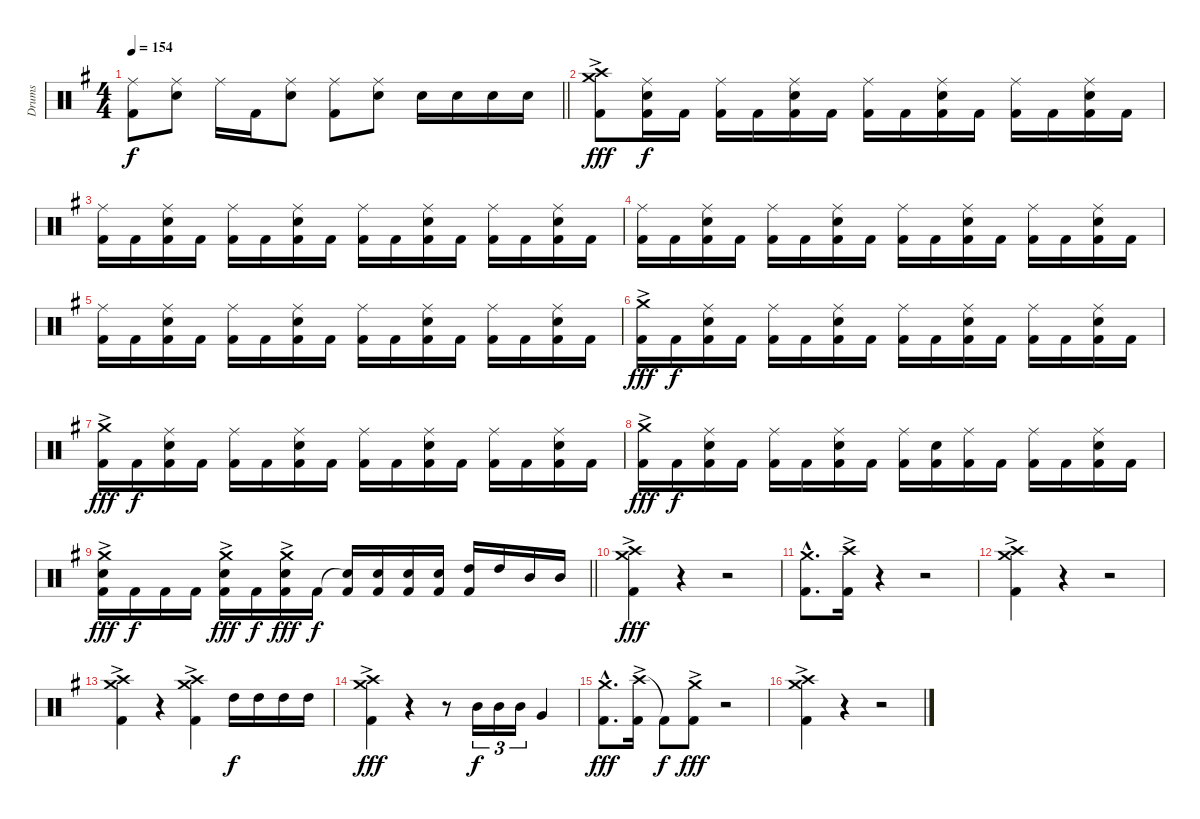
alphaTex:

\track ("Drums" "Drums") {instrument percussion}
\staff {score}
\articulation defaults
\ts (4 4)
\tempo 154
\clef neutral
\barLineRight lightlight
\ks g
("Ride (middle)" "Kick (hit) 2").8{dy f} ("Ride (middle)" "Snare (hit) 2").8 "Ride (middle)".16 "Kick (hit) 2".16 ("Ride (middle)" "Snare (hit) 2").8 ("Ride (middle)" "Kick (hit) 2").8 ("Ride (middle)" "Snare (hit) 2").8 "Snare (hit) 2".16 "Snare (hit) 2".16 "Snare (hit) 2".16 "Snare (hit) 2".16 |
("Crash medium (hit)"{ac} "Crash high (hit)"{ac} "Kick (hit) 2"{ac}).8{dy fff} ("Ride (middle)" "Snare (hit) 2" "Kick (hit) 2").16{dy f} "Kick (hit) 2".16 ("Ride (middle)" "Kick (hit) 2").16 "Kick (hit) 2".16 ("Ride (middle)" "Snare (hit) 2" "Kick (hit) 2").16 "Kick (hit) 2".16 ("Ride (middle)" "Kick (hit) 2").16 "Kick (hit) 2".16 ("Ride (middle)" "Snare (hit) 2" "Kick (hit) 2").16 "Kick (hit) 2".16 ("Ride (middle)" "Kick (hit) 2").16 "Kick (hit) 2".16 ("Ride (middle)" "Snare (hit) 2" "Kick (hit) 2").16 "Kick (hit) 2".16 |
("Ride (middle)" "Kick (hit) 2").16 "Kick (hit) 2".16 ("Ride (middle)" "Snare (hit) 2" "Kick (hit) 2").16 "Kick (hit) 2".16 ("Ride (middle)" "Kick (hit) 2").16 "Kick (hit) 2".16 ("Ride (middle)" "Snare (hit) 2" "Kick (hit) 2").16 "Kick (hit) 2".16 ("Ride (middle)" "Kick (hit) 2").16 "Kick (hit) 2".16 ("Ride (middle)" "Snare (hit) 2" "Kick (hit) 2").16 "Kick (hit) 2".16 ("Ride (middle)" "Kick (hit) 2").16 "Kick (hit) 2".16 ("Ride (middle)" "Snare (hit) 2" "Kick (hit) 2").16 "Kick (hit) 2".16 |
("Ride (middle)" "Kick (hit) 2").16 "Kick (hit) 2".16 ("Ride (middle)" "Snare (hit) 2" "Kick (hit) 2").16 "Kick (hit) 2".16 ("Ride (middle)" "Kick (hit) 2").16 "Kick (hit) 2".16 ("Ride (middle)" "Snare (hit) 2" "Kick (hit) 2").16 "Kick (hit) 2".16 ("Ride (middle)" "Kick (hit) 2").16 "Kick (hit) 2".16 ("Ride (middle)" "Snare (hit) 2" "Kick (hit) 2").16 "Kick (hit) 2".16 ("Ride (middle)" "Kick (hit) 2").16 "Kick (hit) 2".16 ("Ride (middle)" "Snare (hit) 2" "Kick (hit) 2").16 "Kick (hit) 2".16 |
("Ride (middle)" "Kick (hit) 2").16 "Kick (hit) 2".16 ("Ride (middle)" "Snare (hit) 2" "Kick (hit) 2").16 "Kick (hit) 2".16 ("Ride (middle)" "Kick (hit) 2").16 "Kick (hit) 2".16 ("Ride (middle)" "Snare (hit) 2" "Kick (hit) 2").16 "Kick (hit) 2".16 ("Ride (middle)" "Kick (hit) 2").16 "Kick (hit) 2".16 ("Ride (middle)" "Snare (hit) 2" "Kick (hit) 2").16 "Kick (hit) 2".16 ("Ride (middle)" "Kick (hit) 2").16 "Kick (hit) 2".16 ("Ride (middle)" "Snare (hit) 2" "Kick (hit) 2").16 "Kick (hit) 2".16 |
("Crash medium (hit)"{ac} "Kick (hit) 2"{ac}).16{dy fff} "Kick (hit) 2".16{dy f} ("Ride (middle)" "Snare (hit) 2" "Kick (hit) 2").16 "Kick (hit) 2".16 ("Ride (middle)" "Kick (hit) 2").16 "Kick (hit) 2".16 ("Ride (middle)" "Snare (hit) 2" "Kick (hit) 2").16 "Kick (hit) 2".16 ("Ride (middle)" "Kick (hit) 2").16 "Kick (hit) 2".16 ("Ride (middle)" "Snare (hit) 2" "Kick (hit) 2").16 "Kick (hit) 2".16 ("Ride (middle)" "Kick (hit) 2").16 "Kick (hit) 2".16 ("Ride (middle)" "Snare (hit) 2" "Kick (hit) 2").16 "Kick (hit) 2".16 |
("Crash medium (hit)"{ac} "Kick (hit) 2"{ac}).16{dy fff} "Kick (hit) 2".16{dy f} ("Ride (middle)" "Snare (hit) 2" "Kick (hit) 2").16 "Kick (hit) 2".16 ("Ride (middle)" "Kick (hit) 2").16 "Kick (hit) 2".16 ("Ride (middle)" "Snare (hit) 2" "Kick (hit) 2").16 "Kick (hit) 2".16 ("Ride (middle)" "Kick (hit) 2").16 "Kick (hit) 2".16 ("Ride (middle)" "Snare (hit) 2" "Kick (hit) 2").16 "Kick (hit) 2".16 ("Ride (middle)" "Kick (hit) 2").16 "Kick (hit) 2".16 ("Ride (middle)" "Snare (hit) 2" "Kick (hit) 2").16 "Kick (hit) 2".16 |
("Crash medium (hit)"{ac} "Kick (hit) 2"{ac}).16{dy fff} "Kick (hit) 2".16{dy f} ("Ride (middle)" "Snare (hit) 2" "Kick (hit) 2").16 "Kick (hit) 2".16 ("Ride (middle)" "Kick (hit) 2").16 "Kick (hit) 2".16 ("Ride (middle)" "Snare (hit) 2" "Kick (hit) 2").16 "Kick (hit) 2".16 ("Ride (middle)" "Kick (hit) 2").16 ("Snare (hit) 2" "Kick (hit) 2").16 ("Ride (middle)" "Kick (hit) 2").16 "Kick (hit) 2".16 ("Ride (middle)" "Kick (hit) 2").16 "Kick (hit) 2".16 ("Ride (middle)" "Snare (hit) 2" "Kick (hit) 2").16 "Kick (hit) 2".16 |
\barLineRight lightlight
("Crash medium (hit)"{ac} "Snare (hit) 2"{ac} "Kick (hit) 2"{ac}).16{dy fff} "Kick (hit) 2".16{dy f} "Kick (hit) 2".16 "Kick (hit) 2".16 ("Crash medium (hit)"{ac} "Snare (hit) 2"{ac} "Kick (hit) 2").16{dy fff} "Kick (hit) 2".16{dy f} ("Crash medium (hit)"{ac} "Snare (hit) 2"{ac} "Kick (hit) 2").16{dy fff} "Kick (hit) 2".16{dy f} ("Snare (hit)"{t} "Kick (hit) 2").16 ("Snare (hit) 2" "Kick (hit) 2").16 ("Snare (hit) 2" "Kick (hit) 2").16 ("Snare (hit) 2" "Kick (hit) 2").16 ("High Tom (hit)" "Kick (hit) 2").16 "High Tom (hit)".16 "Mid Tom (hit)".16 "Mid Tom (hit)".16 |
("Crash medium (hit)"{ac} "Crash high (hit)"{ac} "Kick (hit) 2"{ac}).4{dy fff} r.4 r.2 |
("Crash medium (hit)"{hac} "Kick (hit) 2"{hac}).8{d} ("Crash high (hit)"{ac} "Kick (hit) 2"{ac}).16 r.4 r.2 |
("Crash medium (hit)"{ac} "Crash high (hit)"{ac} "Kick (hit) 2"{ac}).4 r.4 r.2 |
("Crash medium (hit)"{ac} "Crash high (hit)"{ac} "Kick (hit) 2"{ac}).4 r.4 ("Crash medium (hit)"{ac} "Crash high (hit)"{ac} "Kick (hit) 2"{ac}).4 "High Tom (hit)".16{dy f} "High Tom (hit)".16 "High Tom (hit)".16 "High Tom (hit)".16 |
("Crash medium (hit)"{ac} "Crash high (hit)"{ac} "Kick (hit) 2"{ac}).4{dy fff} r.4 r.8 "Mid Tom (hit)".16{tu (3 2) dy f} "Mid Tom (hit)".16{tu (3 2)} "Mid Tom (hit)".16{tu (3 2)} "Very Low Tom (hit)".4 |
("Crash medium (hit)"{hac} "Kick (hit) 2"{hac}).8{d dy fff} ("Crash high (hit)"{ac} "Kick (hit) 2"{ac}).16 "Kick (hit) 2"{t}.8{dy f} ("Crash medium (hit)"{ac} "Kick (hit) 2"{ac}).8{dy fff} r.2 |
("Crash medium (hit)"{ac} "Crash high (hit)"{ac} "Kick (hit) 2"{ac}).4 r.4 r.2
